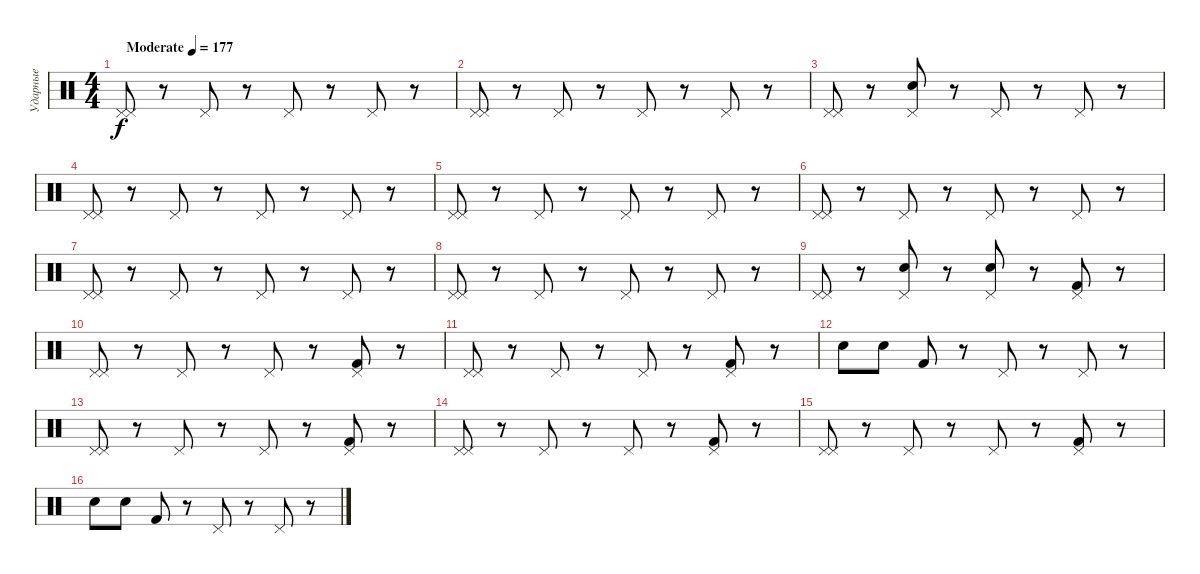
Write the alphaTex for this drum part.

\track ("Ударные" "Ударные") {instrument percussion}
\staff {score}
\articulation defaults
\ts (4 4)
\tempo (177 "Moderate")
\clef neutral
\ks c
("Pedal Hi-Hat (hit)" "Pedal Hi-Hat (hit)").8{dy f} r.8 "Pedal Hi-Hat (hit)".8 r.8 "Pedal Hi-Hat (hit)".8 r.8 "Pedal Hi-Hat (hit)".8 r.8 |
("Pedal Hi-Hat (hit)" "Pedal Hi-Hat (hit)").8 r.8 "Pedal Hi-Hat (hit)".8 r.8 "Pedal Hi-Hat (hit)".8 r.8 "Pedal Hi-Hat (hit)".8 r.8 |
("Pedal Hi-Hat (hit)" "Pedal Hi-Hat (hit)").8 r.8 ("Pedal Hi-Hat (hit)" "Snare (hit)").8 r.8 "Pedal Hi-Hat (hit)".8 r.8 "Pedal Hi-Hat (hit)".8 r.8 |
("Pedal Hi-Hat (hit)" "Pedal Hi-Hat (hit)").8 r.8 "Pedal Hi-Hat (hit)".8 r.8 "Pedal Hi-Hat (hit)".8 r.8 "Pedal Hi-Hat (hit)".8 r.8 |
("Pedal Hi-Hat (hit)" "Pedal Hi-Hat (hit)").8 r.8 "Pedal Hi-Hat (hit)".8 r.8 "Pedal Hi-Hat (hit)".8 r.8 "Pedal Hi-Hat (hit)".8 r.8 |
("Pedal Hi-Hat (hit)" "Pedal Hi-Hat (hit)").8 r.8 "Pedal Hi-Hat (hit)".8 r.8 "Pedal Hi-Hat (hit)".8 r.8 "Pedal Hi-Hat (hit)".8 r.8 |
("Pedal Hi-Hat (hit)" "Pedal Hi-Hat (hit)").8 r.8 "Pedal Hi-Hat (hit)".8 r.8 "Pedal Hi-Hat (hit)".8 r.8 "Pedal Hi-Hat (hit)".8 r.8 |
("Pedal Hi-Hat (hit)" "Pedal Hi-Hat (hit)").8 r.8 "Pedal Hi-Hat (hit)".8 r.8 "Pedal Hi-Hat (hit)".8 r.8 "Pedal Hi-Hat (hit)".8 r.8 |
("Pedal Hi-Hat (hit)" "Pedal Hi-Hat (hit)").8 r.8 ("Pedal Hi-Hat (hit)" "Snare (hit)").8 r.8 ("Pedal Hi-Hat (hit)" "Snare (hit)").8 r.8 ("Kick (hit) 2" "Pedal Hi-Hat (hit)").8 r.8 |
("Pedal Hi-Hat (hit)" "Pedal Hi-Hat (hit)").8 r.8 "Pedal Hi-Hat (hit)".8 r.8 "Pedal Hi-Hat (hit)".8 r.8 ("Kick (hit) 2" "Pedal Hi-Hat (hit)").8 r.8 |
("Pedal Hi-Hat (hit)" "Pedal Hi-Hat (hit)").8 r.8 "Pedal Hi-Hat (hit)".8 r.8 "Pedal Hi-Hat (hit)".8 r.8 ("Kick (hit) 2" "Pedal Hi-Hat (hit)").8 r.8 |
"Electric Snare (hit)".8 "Snare (hit) 2".8 "Kick (hit) 2".8 r.8 "Pedal Hi-Hat (hit)".8 r.8 "Pedal Hi-Hat (hit)".8 r.8 |
("Pedal Hi-Hat (hit)" "Pedal Hi-Hat (hit)").8 r.8 "Pedal Hi-Hat (hit)".8 r.8 "Pedal Hi-Hat (hit)".8 r.8 ("Kick (hit) 2" "Pedal Hi-Hat (hit)").8 r.8 |
("Pedal Hi-Hat (hit)" "Pedal Hi-Hat (hit)").8 r.8 "Pedal Hi-Hat (hit)".8 r.8 "Pedal Hi-Hat (hit)".8 r.8 ("Kick (hit) 2" "Pedal Hi-Hat (hit)").8 r.8 |
("Pedal Hi-Hat (hit)" "Pedal Hi-Hat (hit)").8 r.8 "Pedal Hi-Hat (hit)".8 r.8 "Pedal Hi-Hat (hit)".8 r.8 ("Kick (hit) 2" "Pedal Hi-Hat (hit)").8 r.8 |
"Electric Snare (hit)".8 "Snare (hit) 2".8 "Kick (hit) 2".8 r.8 "Pedal Hi-Hat (hit)".8 r.8 "Pedal Hi-Hat (hit)".8 r.8
